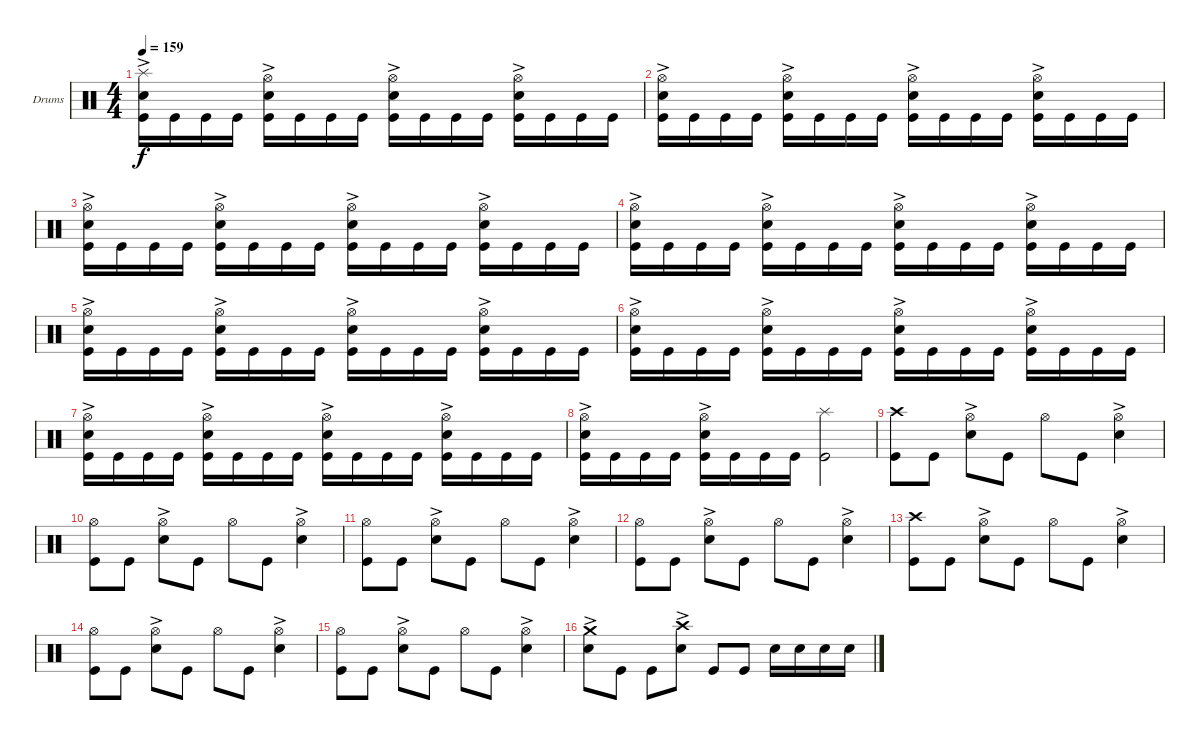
\defaultSystemsLayout 4
\bracketExtendMode groupsimilarinstruments
\firstSystemTrackNameOrientation horizontal
\otherSystemsTrackNameOrientation horizontal
\track ("Drumkit" "Drums") {instrument percussion}
\staff {score}
\articulation defaults
\ts (4 4)
\tempo 159
\clef neutral
\ks c
("Kick (hit)" "Snare (hit) 2"{ac} "Splash (hit)").16{dy f} "Kick (hit)".16 "Kick (hit)".16 "Kick (hit)".16 ("Kick (hit)" "Hi-Hat (open)" "Snare (hit) 2"{ac}).16 "Kick (hit)".16 "Kick (hit)".16 "Kick (hit)".16 ("Kick (hit)" "Hi-Hat (open)" "Snare (hit) 2"{ac}).16 "Kick (hit)".16 "Kick (hit)".16 "Kick (hit)".16 ("Kick (hit)" "Hi-Hat (open)" "Snare (hit) 2"{ac}).16 "Kick (hit)".16 "Kick (hit)".16 "Kick (hit)".16 |
("Kick (hit)" "Hi-Hat (open)" "Snare (hit) 2"{ac}).16 "Kick (hit)".16 "Kick (hit)".16 "Kick (hit)".16 ("Kick (hit)" "Hi-Hat (open)" "Snare (hit) 2"{ac}).16 "Kick (hit)".16 "Kick (hit)".16 "Kick (hit)".16 ("Kick (hit)" "Hi-Hat (open)" "Snare (hit) 2"{ac}).16 "Kick (hit)".16 "Kick (hit)".16 "Kick (hit)".16 ("Kick (hit)" "Hi-Hat (open)" "Snare (hit) 2"{ac}).16 "Kick (hit)".16 "Kick (hit)".16 "Kick (hit)".16 |
\scale
0.343058 ("Kick (hit)" "Snare (hit) 2"{ac} "Hi-Hat (open)").16 "Kick (hit)".16 "Kick (hit)".16 "Kick (hit)".16 ("Kick (hit)" "Hi-Hat (open)" "Snare (hit) 2"{ac}).16 "Kick (hit)".16 "Kick (hit)".16 "Kick (hit)".16 ("Kick (hit)" "Hi-Hat (open)" "Snare (hit) 2"{ac}).16 "Kick (hit)".16 "Kick (hit)".16 "Kick (hit)".16 ("Kick (hit)" "Hi-Hat (open)" "Snare (hit) 2"{ac}).16 "Kick (hit)".16 "Kick (hit)".16 "Kick (hit)".16 |
\scale
0.332752 ("Kick (hit)" "Hi-Hat (open)" "Snare (hit) 2"{ac}).16 "Kick (hit)".16 "Kick (hit)".16 "Kick (hit)".16 ("Kick (hit)" "Hi-Hat (open)" "Snare (hit) 2"{ac}).16 "Kick (hit)".16 "Kick (hit)".16 "Kick (hit)".16 ("Kick (hit)" "Hi-Hat (open)" "Snare (hit) 2"{ac}).16 "Kick (hit)".16 "Kick (hit)".16 "Kick (hit)".16 ("Kick (hit)" "Hi-Hat (open)" "Snare (hit) 2"{ac}).16 "Kick (hit)".16 "Kick (hit)".16 "Kick (hit)".16 |
\scale
0.324183 ("Kick (hit)" "Snare (hit) 2"{ac} "Hi-Hat (open)").16 "Kick (hit)".16 "Kick (hit)".16 "Kick (hit)".16 ("Kick (hit)" "Hi-Hat (open)" "Snare (hit) 2"{ac}).16 "Kick (hit)".16 "Kick (hit)".16 "Kick (hit)".16 ("Kick (hit)" "Hi-Hat (open)" "Snare (hit) 2"{ac}).16 "Kick (hit)".16 "Kick (hit)".16 "Kick (hit)".16 ("Kick (hit)" "Hi-Hat (open)" "Snare (hit) 2"{ac}).16 "Kick (hit)".16 "Kick (hit)".16 "Kick (hit)".16 |
("Kick (hit)" "Hi-Hat (open)" "Snare (hit) 2"{ac}).16 "Kick (hit)".16 "Kick (hit)".16 "Kick (hit)".16 ("Kick (hit)" "Hi-Hat (open)" "Snare (hit) 2"{ac}).16 "Kick (hit)".16 "Kick (hit)".16 "Kick (hit)".16 ("Kick (hit)" "Hi-Hat (open)" "Snare (hit) 2"{ac}).16 "Kick (hit)".16 "Kick (hit)".16 "Kick (hit)".16 ("Kick (hit)" "Hi-Hat (open)" "Snare (hit) 2"{ac}).16 "Kick (hit)".16 "Kick (hit)".16 "Kick (hit)".16 |
("Kick (hit)" "Snare (hit) 2"{ac} "Hi-Hat (open)").16 "Kick (hit)".16 "Kick (hit)".16 "Kick (hit)".16 ("Kick (hit)" "Hi-Hat (open)" "Snare (hit) 2"{ac}).16 "Kick (hit)".16 "Kick (hit)".16 "Kick (hit)".16 ("Kick (hit)" "Hi-Hat (open)" "Snare (hit) 2"{ac}).16 "Kick (hit)".16 "Kick (hit)".16 "Kick (hit)".16 ("Kick (hit)" "Hi-Hat (open)" "Snare (hit) 2"{ac}).16 "Kick (hit)".16 "Kick (hit)".16 "Kick (hit)".16 |
("Kick (hit)" "Hi-Hat (open)" "Snare (hit) 2"{ac}).16 "Kick (hit)".16 "Kick (hit)".16 "Kick (hit)".16 ("Kick (hit)" "Hi-Hat (open)" "Snare (hit) 2"{ac}).16 "Kick (hit)".16 "Kick (hit)".16 "Kick (hit)".16 ("Kick (hit)" "Splash (hit)").2 |
("Kick (hit)" "Crash high (hit)").8 "Kick (hit)".8 ("Snare (hit) 2"{ac} "Hi-Hat (open)").8 "Kick (hit)".8 "Hi-Hat (open)".8 "Kick (hit)".8 ("Snare (hit) 2"{ac} "Hi-Hat (open)").4 |
("Kick (hit)" "Hi-Hat (open)").8 "Kick (hit)".8 ("Snare (hit) 2"{ac} "Hi-Hat (open)").8 "Kick (hit)".8 "Hi-Hat (open)".8 "Kick (hit)".8 ("Snare (hit) 2"{ac} "Hi-Hat (open)").4 |
("Kick (hit)" "Hi-Hat (open)").8 "Kick (hit)".8 ("Snare (hit) 2"{ac} "Hi-Hat (open)").8 "Kick (hit)".8 "Hi-Hat (open)".8 "Kick (hit)".8 ("Snare (hit) 2"{ac} "Hi-Hat (open)").4 |
("Kick (hit)" "Hi-Hat (open)").8 "Kick (hit)".8 ("Snare (hit) 2"{ac} "Hi-Hat (open)").8 "Kick (hit)".8 "Hi-Hat (open)".8 "Kick (hit)".8 ("Snare (hit) 2"{ac} "Hi-Hat (open)").4 |
("Kick (hit)" "Crash high (hit)").8 "Kick (hit)".8 ("Snare (hit) 2"{ac} "Hi-Hat (open)").8 "Kick (hit)".8 "Hi-Hat (open)".8 "Kick (hit)".8 ("Snare (hit) 2"{ac} "Hi-Hat (open)").4 |
("Kick (hit)" "Hi-Hat (open)").8 "Kick (hit)".8 ("Snare (hit) 2"{ac} "Hi-Hat (open)").8 "Kick (hit)".8 "Hi-Hat (open)".8 "Kick (hit)".8 ("Snare (hit) 2"{ac} "Hi-Hat (open)").4 |
\scale
0.278956 ("Kick (hit)" "Hi-Hat (open)").8 "Kick (hit)".8 ("Snare (hit) 2"{ac} "Hi-Hat (open)").8 "Kick (hit)".8 "Hi-Hat (open)".8 "Kick (hit)".8 ("Snare (hit) 2"{ac} "Hi-Hat (open)").4 |
\scale
0.316476 ("Snare (hit) 2"{ac} "Crash medium (hit)").8 "Kick (hit)".8 "Kick (hit)".8 ("Snare (hit) 2"{ac} "Crash high (hit)").8 "Kick (hit)".8 "Kick (hit)".8 "Snare (hit) 2".16 "Snare (hit) 2".16 "Snare (hit) 2".16 "Snare (hit) 2".16
